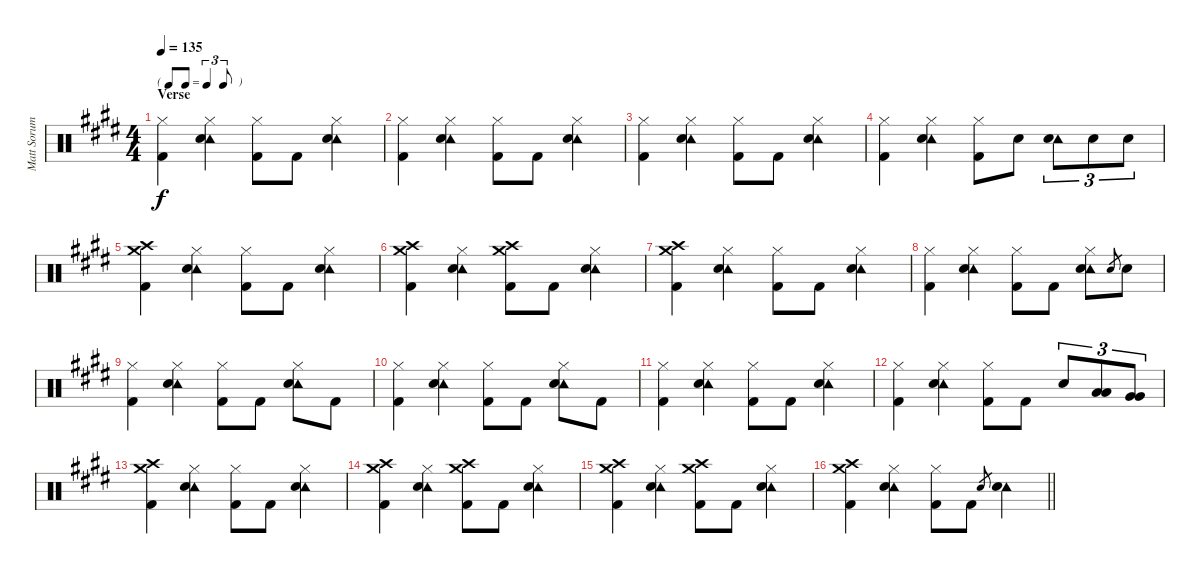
\track ("Matt Sorum - Drums" "Matt Sorum") {instrument percussion}
\staff {score}
\articulation defaults
\ts (4 4)
\tf triplet8th
\section ("" "Verse")
\tempo 135
\clef neutral
\ks e
("Hi-Hat (closed)" "Kick (hit) 2").4{dy f} ("Hi-Hat (closed)" "Tambourine (hit)" "Snare (hit) 2").4 ("Hi-Hat (closed)" "Kick (hit) 2").8 "Kick (hit) 2".8 ("Hi-Hat (closed)" "Tambourine (hit)" "Snare (hit) 2").4 |
("Hi-Hat (closed)" "Kick (hit) 2").4 ("Hi-Hat (closed)" "Tambourine (hit)" "Snare (hit) 2").4 ("Hi-Hat (closed)" "Kick (hit) 2").8 "Kick (hit) 2".8 ("Hi-Hat (closed)" "Tambourine (hit)" "Snare (hit) 2").4 |
("Hi-Hat (closed)" "Kick (hit) 2").4 ("Hi-Hat (closed)" "Tambourine (hit)" "Snare (hit) 2").4 ("Hi-Hat (closed)" "Kick (hit) 2").8 "Kick (hit) 2".8 ("Hi-Hat (closed)" "Tambourine (hit)" "Snare (hit) 2").4 |
("Hi-Hat (closed)" "Kick (hit) 2").4 ("Hi-Hat (closed)" "Tambourine (hit)" "Snare (hit) 2").4 ("Hi-Hat (closed)" "Kick (hit) 2").8 "Snare (hit) 2".8 ("Tambourine (hit)" "Snare (hit) 2").8{tu (3 2)} "Snare (hit) 2".8{tu (3 2)} "Snare (hit) 2".8{tu (3 2)} |
("Crash medium (hit)" "Crash high (hit)" "Kick (hit) 2").4 ("Hi-Hat (closed)" "Tambourine (hit)" "Snare (hit) 2").4 ("Hi-Hat (closed)" "Kick (hit) 2").8 "Kick (hit) 2".8 ("Hi-Hat (closed)" "Tambourine (hit)" "Snare (hit) 2").4 |
("Crash medium (hit)" "Crash high (hit)" "Kick (hit) 2").4 ("Hi-Hat (closed)" "Tambourine (hit)" "Snare (hit) 2").4 ("Crash high (hit)" "Crash medium (hit)" "Kick (hit) 2").8 "Kick (hit) 2".8 ("Hi-Hat (closed)" "Tambourine (hit)" "Snare (hit) 2").4 |
("Crash medium (hit)" "Crash high (hit)" "Kick (hit) 2").4 ("Hi-Hat (closed)" "Tambourine (hit)" "Snare (hit) 2").4 ("Hi-Hat (closed)" "Kick (hit) 2").8 "Kick (hit) 2".8 ("Hi-Hat (closed)" "Tambourine (hit)" "Snare (hit) 2").4 |
("Hi-Hat (closed)" "Kick (hit) 2").4 ("Hi-Hat (closed)" "Tambourine (hit)" "Snare (hit) 2").4 ("Hi-Hat (closed)" "Kick (hit) 2").8 "Kick (hit) 2".8 ("Hi-Hat (closed)" "Tambourine (hit)" "Snare (hit) 2").8 "Snare (hit) 2".8{gr} "Snare (hit) 2".8 |
("Hi-Hat (closed)" "Kick (hit) 2").4 ("Hi-Hat (closed)" "Tambourine (hit)" "Snare (hit) 2").4 ("Hi-Hat (closed)" "Kick (hit) 2").8 "Kick (hit) 2".8 ("Hi-Hat (closed)" "Tambourine (hit)" "Snare (hit) 2").8 "Kick (hit) 2".8 |
("Hi-Hat (closed)" "Kick (hit) 2").4 ("Hi-Hat (closed)" "Tambourine (hit)" "Snare (hit) 2").4 ("Hi-Hat (closed)" "Kick (hit) 2").8 "Kick (hit) 2".8 ("Hi-Hat (closed)" "Tambourine (hit)" "Snare (hit) 2").8 "Kick (hit) 2".8 |
("Hi-Hat (closed)" "Kick (hit) 2").4 ("Hi-Hat (closed)" "Tambourine (hit)" "Snare (hit) 2").4 ("Hi-Hat (closed)" "Kick (hit) 2").8 "Kick (hit) 2".8 ("Hi-Hat (closed)" "Tambourine (hit)" "Snare (hit) 2").4 |
("Hi-Hat (closed)" "Kick (hit) 2").4 ("Hi-Hat (closed)" "Tambourine (hit)" "Snare (hit) 2").4 ("Hi-Hat (closed)" "Kick (hit) 2").8 "Kick (hit) 2".8 "Snare (hit) 2".8{tu (3 2)} ("Low Tom (hit)" "Low Tom (hit)").8{tu (3 2)} ("Very Low Tom (hit)" "Very Low Tom (hit)").8{tu (3 2)} |
("Crash medium (hit)" "Crash high (hit)" "Kick (hit) 2").4 ("Hi-Hat (closed)" "Tambourine (hit)" "Snare (hit) 2").4 ("Hi-Hat (closed)" "Kick (hit) 2").8 "Kick (hit) 2".8 ("Hi-Hat (closed)" "Tambourine (hit)" "Snare (hit) 2").4 |
("Crash medium (hit)" "Crash high (hit)" "Kick (hit) 2").4 ("Hi-Hat (closed)" "Tambourine (hit)" "Snare (hit) 2").4 ("Crash high (hit)" "Crash medium (hit)" "Kick (hit) 2").8 "Kick (hit) 2".8 ("Hi-Hat (closed)" "Tambourine (hit)" "Snare (hit) 2").4 |
("Crash medium (hit)" "Crash high (hit)" "Kick (hit) 2").4 ("Hi-Hat (closed)" "Tambourine (hit)" "Snare (hit) 2").4 ("Crash high (hit)" "Crash medium (hit)" "Kick (hit) 2").8 "Kick (hit) 2".8 ("Hi-Hat (closed)" "Tambourine (hit)" "Snare (hit) 2").4 |
\barLineRight lightlight
("Crash medium (hit)" "Crash high (hit)" "Kick (hit) 2").4 ("Hi-Hat (closed)" "Tambourine (hit)" "Snare (hit) 2").4 ("Hi-Hat (closed)" "Kick (hit) 2").8 "Kick (hit) 2".8 "Snare (hit) 2".8{gr} ("Tambourine (hit)" "Snare (hit) 2").4
